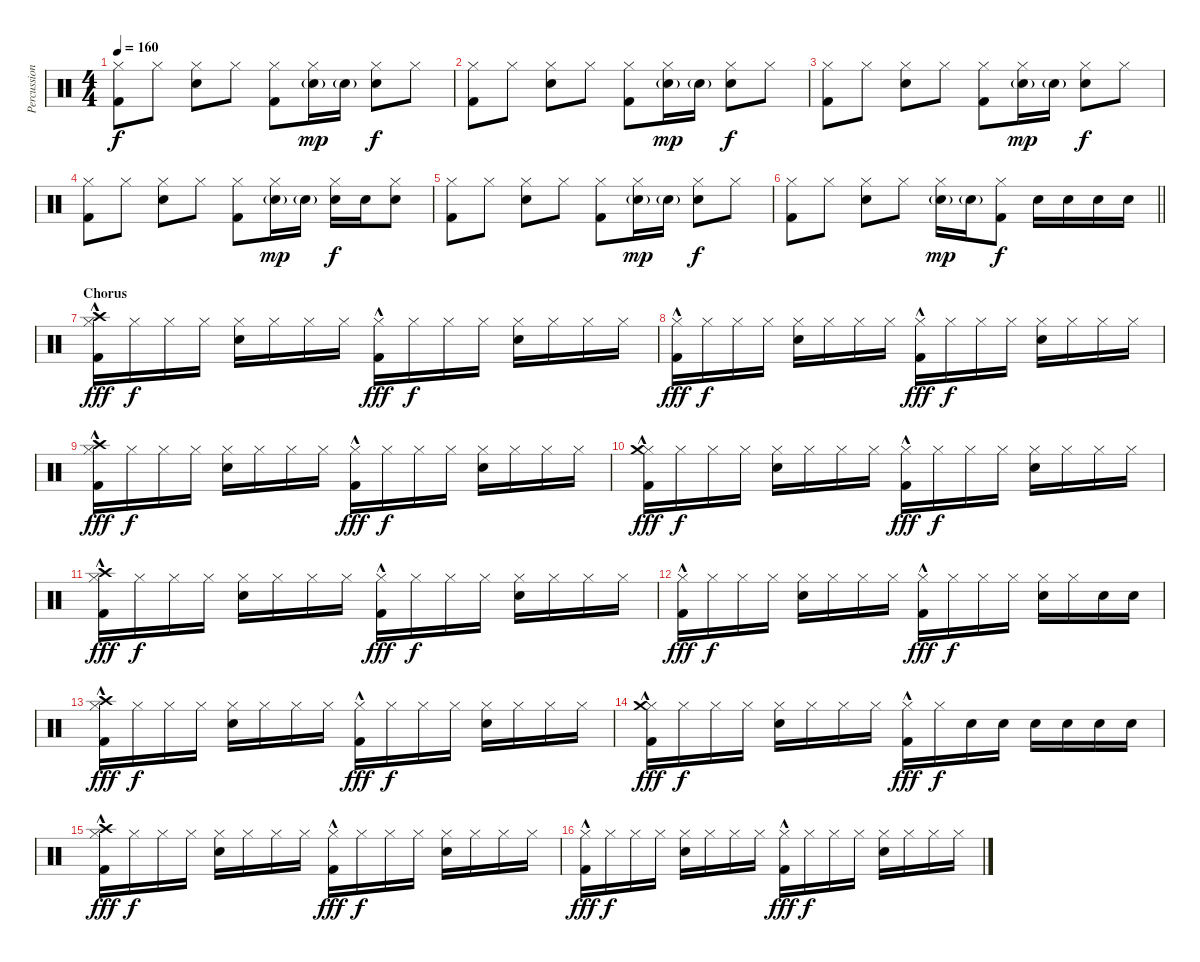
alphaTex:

\track ("Percussion" "Percussion") {instrument percussion}
\staff {score}
\articulation defaults
\ts (4 4)
\tempo 160
\clef neutral
\ks c
("Hi-Hat (closed)" "Kick (hit) 2").8{dy f} "Hi-Hat (closed)".8 ("Hi-Hat (closed)" "Snare (hit) 2").8 "Hi-Hat (closed)".8 ("Hi-Hat (closed)" "Kick (hit) 2").8 ("Hi-Hat (closed)" "Snare (hit) 2"{g}).16{dy mp} "Snare (hit) 2"{g}.16 ("Hi-Hat (closed)" "Snare (hit) 2").8{dy f} "Hi-Hat (closed)".8 |
("Hi-Hat (closed)" "Kick (hit) 2").8 "Hi-Hat (closed)".8 ("Hi-Hat (closed)" "Snare (hit) 2").8 "Hi-Hat (closed)".8 ("Hi-Hat (closed)" "Kick (hit) 2").8 ("Hi-Hat (closed)" "Snare (hit) 2"{g}).16{dy mp} "Snare (hit) 2"{g}.16 ("Hi-Hat (closed)" "Snare (hit) 2").8{dy f} "Hi-Hat (closed)".8 |
("Hi-Hat (closed)" "Kick (hit) 2").8 "Hi-Hat (closed)".8 ("Hi-Hat (closed)" "Snare (hit) 2").8 "Hi-Hat (closed)".8 ("Hi-Hat (closed)" "Kick (hit) 2").8 ("Hi-Hat (closed)" "Snare (hit) 2"{g}).16{dy mp} "Snare (hit) 2"{g}.16 ("Hi-Hat (closed)" "Snare (hit) 2").8{dy f} "Hi-Hat (closed)".8 |
("Hi-Hat (closed)" "Kick (hit) 2").8 "Hi-Hat (closed)".8 ("Hi-Hat (closed)" "Snare (hit) 2").8 "Hi-Hat (closed)".8 ("Hi-Hat (closed)" "Kick (hit) 2").8 ("Hi-Hat (closed)" "Snare (hit) 2"{g}).16{dy mp} "Snare (hit) 2"{g}.16 ("Hi-Hat (closed)" "Snare (hit) 2").16{dy f} "Snare (hit) 2".16 ("Hi-Hat (closed)" "Snare (hit) 2").8 |
("Hi-Hat (closed)" "Kick (hit) 2").8 "Hi-Hat (closed)".8 ("Hi-Hat (closed)" "Snare (hit) 2").8 "Hi-Hat (closed)".8 ("Hi-Hat (closed)" "Kick (hit) 2").8 ("Hi-Hat (closed)" "Snare (hit) 2"{g}).16{dy mp} "Snare (hit) 2"{g}.16 ("Hi-Hat (closed)" "Snare (hit) 2").8{dy f} "Hi-Hat (closed)".8 |
\barLineRight lightlight
("Hi-Hat (closed)" "Kick (hit) 2").8 "Hi-Hat (closed)".8 ("Hi-Hat (closed)" "Snare (hit) 2").8 "Hi-Hat (closed)".8 ("Hi-Hat (closed)" "Snare (hit) 2"{g}).16{dy mp} "Snare (hit) 2"{g}.16 ("Hi-Hat (closed)" "Kick (hit) 2").8{dy f} "Snare (hit) 2".16 "Snare (hit) 2".16 "Snare (hit) 2".16 "Snare (hit) 2".16 |
\section ("" "Chorus")
("Hi-Hat (closed)"{hac} "Crash high (hit)" "Kick (hit) 2").16{dy fff} "Hi-Hat (closed)".16{dy f} "Hi-Hat (closed)".16 "Hi-Hat (closed)".16 ("Hi-Hat (closed)" "Snare (hit) 2").16 "Hi-Hat (closed)".16 "Hi-Hat (closed)".16 "Hi-Hat (closed)".16 ("Hi-Hat (closed)"{hac} "Kick (hit) 2").16{dy fff} "Hi-Hat (closed)".16{dy f} "Hi-Hat (closed)".16 "Hi-Hat (closed)".16 ("Hi-Hat (closed)" "Snare (hit) 2").16 "Hi-Hat (closed)".16 "Hi-Hat (closed)".16 "Hi-Hat (closed)".16 |
("Hi-Hat (closed)"{hac} "Kick (hit) 2").16{dy fff} "Hi-Hat (closed)".16{dy f} "Hi-Hat (closed)".16 "Hi-Hat (closed)".16 ("Hi-Hat (closed)" "Snare (hit) 2").16 "Hi-Hat (closed)".16 "Hi-Hat (closed)".16 "Hi-Hat (closed)".16 ("Hi-Hat (closed)"{hac} "Kick (hit) 2").16{dy fff} "Hi-Hat (closed)".16{dy f} "Hi-Hat (closed)".16 "Hi-Hat (closed)".16 ("Hi-Hat (closed)" "Snare (hit) 2").16 "Hi-Hat (closed)".16 "Hi-Hat (closed)".16 "Hi-Hat (closed)".16 |
("Hi-Hat (closed)"{hac} "Crash high (hit)" "Kick (hit) 2").16{dy fff} "Hi-Hat (closed)".16{dy f} "Hi-Hat (closed)".16 "Hi-Hat (closed)".16 ("Hi-Hat (closed)" "Snare (hit) 2").16 "Hi-Hat (closed)".16 "Hi-Hat (closed)".16 "Hi-Hat (closed)".16 ("Hi-Hat (closed)"{hac} "Kick (hit) 2").16{dy fff} "Hi-Hat (closed)".16{dy f} "Hi-Hat (closed)".16 "Hi-Hat (closed)".16 ("Hi-Hat (closed)" "Snare (hit) 2").16 "Hi-Hat (closed)".16 "Hi-Hat (closed)".16 "Hi-Hat (closed)".16 |
("Hi-Hat (closed)"{hac} "Crash medium (hit)" "Kick (hit) 2").16{dy fff} "Hi-Hat (closed)".16{dy f} "Hi-Hat (closed)".16 "Hi-Hat (closed)".16 ("Hi-Hat (closed)" "Snare (hit) 2").16 "Hi-Hat (closed)".16 "Hi-Hat (closed)".16 "Hi-Hat (closed)".16 ("Hi-Hat (closed)"{hac} "Kick (hit) 2").16{dy fff} "Hi-Hat (closed)".16{dy f} "Hi-Hat (closed)".16 "Hi-Hat (closed)".16 ("Hi-Hat (closed)" "Snare (hit) 2").16 "Hi-Hat (closed)".16 "Hi-Hat (closed)".16 "Hi-Hat (closed)".16 |
("Hi-Hat (closed)"{hac} "Crash high (hit)" "Kick (hit) 2").16{dy fff} "Hi-Hat (closed)".16{dy f} "Hi-Hat (closed)".16 "Hi-Hat (closed)".16 ("Hi-Hat (closed)" "Snare (hit) 2").16 "Hi-Hat (closed)".16 "Hi-Hat (closed)".16 "Hi-Hat (closed)".16 ("Hi-Hat (closed)"{hac} "Kick (hit) 2").16{dy fff} "Hi-Hat (closed)".16{dy f} "Hi-Hat (closed)".16 "Hi-Hat (closed)".16 ("Hi-Hat (closed)" "Snare (hit) 2").16 "Hi-Hat (closed)".16 "Hi-Hat (closed)".16 "Hi-Hat (closed)".16 |
("Hi-Hat (closed)"{hac} "Kick (hit) 2").16{dy fff} "Hi-Hat (closed)".16{dy f} "Hi-Hat (closed)".16 "Hi-Hat (closed)".16 ("Hi-Hat (closed)" "Snare (hit) 2").16 "Hi-Hat (closed)".16 "Hi-Hat (closed)".16 "Hi-Hat (closed)".16 ("Hi-Hat (closed)"{hac} "Kick (hit) 2").16{dy fff} "Hi-Hat (closed)".16{dy f} "Hi-Hat (closed)".16 "Hi-Hat (closed)".16 ("Hi-Hat (closed)" "Snare (hit) 2").16 "Hi-Hat (closed)".16 "Snare (hit) 2".16 "Snare (hit) 2".16 |
("Hi-Hat (closed)"{hac} "Crash high (hit)" "Kick (hit) 2").16{dy fff} "Hi-Hat (closed)".16{dy f} "Hi-Hat (closed)".16 "Hi-Hat (closed)".16 ("Hi-Hat (closed)" "Snare (hit) 2").16 "Hi-Hat (closed)".16 "Hi-Hat (closed)".16 "Hi-Hat (closed)".16 ("Hi-Hat (closed)"{hac} "Kick (hit) 2").16{dy fff} "Hi-Hat (closed)".16{dy f} "Hi-Hat (closed)".16 "Hi-Hat (closed)".16 ("Hi-Hat (closed)" "Snare (hit) 2").16 "Hi-Hat (closed)".16 "Hi-Hat (closed)".16 "Hi-Hat (closed)".16 |
("Hi-Hat (closed)"{hac} "Crash medium (hit)" "Kick (hit) 2").16{dy fff} "Hi-Hat (closed)".16{dy f} "Hi-Hat (closed)".16 "Hi-Hat (closed)".16 ("Hi-Hat (closed)" "Snare (hit) 2").16 "Hi-Hat (closed)".16 "Hi-Hat (closed)".16 "Hi-Hat (closed)".16 ("Hi-Hat (closed)"{hac} "Kick (hit) 2").16{dy fff} "Hi-Hat (closed)".16{dy f} "Snare (hit) 2".16 "Snare (hit) 2".16 "Snare (hit) 2".16 "Snare (hit) 2".16 "Snare (hit) 2".16 "Snare (hit) 2".16 |
("Hi-Hat (closed)"{hac} "Crash high (hit)" "Kick (hit) 2").16{dy fff} "Hi-Hat (closed)".16{dy f} "Hi-Hat (closed)".16 "Hi-Hat (closed)".16 ("Hi-Hat (closed)" "Snare (hit) 2").16 "Hi-Hat (closed)".16 "Hi-Hat (closed)".16 "Hi-Hat (closed)".16 ("Hi-Hat (closed)"{hac} "Kick (hit) 2").16{dy fff} "Hi-Hat (closed)".16{dy f} "Hi-Hat (closed)".16 "Hi-Hat (closed)".16 ("Hi-Hat (closed)" "Snare (hit) 2").16 "Hi-Hat (closed)".16 "Hi-Hat (closed)".16 "Hi-Hat (closed)".16 |
("Hi-Hat (closed)"{hac} "Kick (hit) 2").16{dy fff} "Hi-Hat (closed)".16{dy f} "Hi-Hat (closed)".16 "Hi-Hat (closed)".16 ("Hi-Hat (closed)" "Snare (hit) 2").16 "Hi-Hat (closed)".16 "Hi-Hat (closed)".16 "Hi-Hat (closed)".16 ("Hi-Hat (closed)"{hac} "Kick (hit) 2").16{dy fff} "Hi-Hat (closed)".16{dy f} "Hi-Hat (closed)".16 "Hi-Hat (closed)".16 ("Hi-Hat (closed)" "Snare (hit) 2").16 "Hi-Hat (closed)".16 "Hi-Hat (closed)".16 "Hi-Hat (closed)".16
